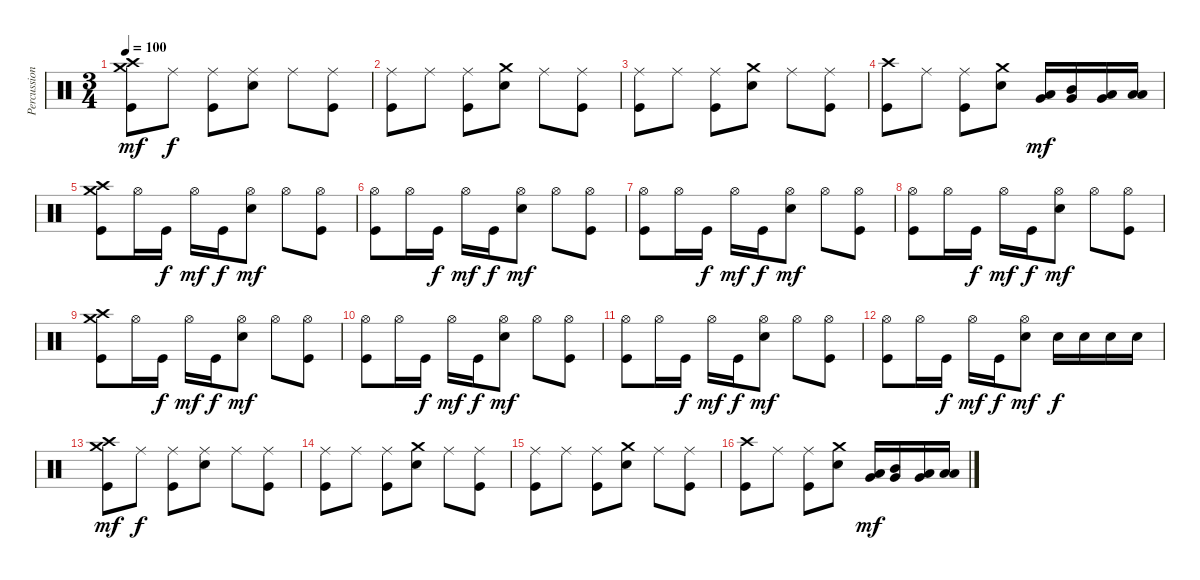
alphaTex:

\track ("Percussions" "Percussion") {instrument percussion}
\staff {score}
\articulation defaults
\ts (3 4)
\tempo 100
\clef neutral
\ks c
("Kick (hit)" "Crash medium (hit)" "Crash high (hit)").8{dy mf} "Ride (middle)".8{dy f} ("Kick (hit)" "Ride (middle)").8 ("Electric Snare (hit)" "Ride (middle)").8 "Ride (middle)".8 ("Kick (hit)" "Ride (middle)").8 |
("Kick (hit)" "Ride (middle)").8 "Ride (middle)".8 ("Kick (hit)" "Ride (middle)").8 ("Electric Snare (hit)" "Crash medium (hit)").8 "Ride (middle)".8 ("Kick (hit)" "Ride (middle)").8 |
("Kick (hit)" "Ride (middle)").8 "Ride (middle)".8 ("Kick (hit)" "Ride (middle)").8 ("Electric Snare (hit)" "Crash medium (hit)").8 "Ride (middle)".8 ("Kick (hit)" "Ride (middle)").8 |
("Kick (hit)" "Crash high (hit)").8 "Ride (middle)".8 ("Kick (hit)" "Ride (middle)").8 ("Electric Snare (hit)" "Crash medium (hit)").8 ("Very Low Tom (hit)" "Low Tom (hit)").16{dy mf} ("Very Low Tom (hit)" "Mid Tom (hit)").16 ("Low Floor Tom (hit)" "Very Low Tom (hit)").16 ("Low Floor Tom (hit)" "Low Tom (hit)").16 |
("Kick (hit)" "Crash medium (hit)" "Crash high (hit)").8 "Hi-Hat (open)".16 "Kick (hit)".16{dy f} "Hi-Hat (open)".16{dy mf} "Kick (hit)".16{dy f} ("Electric Snare (hit)" "Hi-Hat (open)").8{dy mf} "Hi-Hat (open)".8 ("Kick (hit)" "Hi-Hat (open)").8 |
("Kick (hit)" "Hi-Hat (open)").8 "Hi-Hat (open)".16 "Kick (hit)".16{dy f} "Hi-Hat (open)".16{dy mf} "Kick (hit)".16{dy f} ("Electric Snare (hit)" "Hi-Hat (open)").8{dy mf} "Hi-Hat (open)".8 ("Kick (hit)" "Hi-Hat (open)").8 |
("Kick (hit)" "Hi-Hat (open)").8 "Hi-Hat (open)".16 "Kick (hit)".16{dy f} "Hi-Hat (open)".16{dy mf} "Kick (hit)".16{dy f} ("Electric Snare (hit)" "Hi-Hat (open)").8{dy mf} "Hi-Hat (open)".8 ("Kick (hit)" "Hi-Hat (open)").8 |
("Kick (hit)" "Hi-Hat (open)").8 "Hi-Hat (open)".16 "Kick (hit)".16{dy f} "Hi-Hat (open)".16{dy mf} "Kick (hit)".16{dy f} ("Electric Snare (hit)" "Hi-Hat (open)").8{dy mf} "Hi-Hat (open)".8 ("Kick (hit)" "Hi-Hat (open)").8 |
("Kick (hit)" "Crash medium (hit)" "Crash high (hit)").8 "Hi-Hat (open)".16 "Kick (hit)".16{dy f} "Hi-Hat (open)".16{dy mf} "Kick (hit)".16{dy f} ("Electric Snare (hit)" "Hi-Hat (open)").8{dy mf} "Hi-Hat (open)".8 ("Kick (hit)" "Hi-Hat (open)").8 |
("Kick (hit)" "Hi-Hat (open)").8 "Hi-Hat (open)".16 "Kick (hit)".16{dy f} "Hi-Hat (open)".16{dy mf} "Kick (hit)".16{dy f} ("Electric Snare (hit)" "Hi-Hat (open)").8{dy mf} "Hi-Hat (open)".8 ("Kick (hit)" "Hi-Hat (open)").8 |
("Kick (hit)" "Hi-Hat (open)").8 "Hi-Hat (open)".16 "Kick (hit)".16{dy f} "Hi-Hat (open)".16{dy mf} "Kick (hit)".16{dy f} ("Electric Snare (hit)" "Hi-Hat (open)").8{dy mf} "Hi-Hat (open)".8 ("Kick (hit)" "Hi-Hat (open)").8 |
("Kick (hit)" "Hi-Hat (open)").8 "Hi-Hat (open)".16 "Kick (hit)".16{dy f} "Hi-Hat (open)".16{dy mf} "Kick (hit)".16{dy f} ("Electric Snare (hit)" "Hi-Hat (open)").8{dy mf} "Electric Snare (hit)".16{dy f} "Electric Snare (hit)".16 "Electric Snare (hit)".16 "Electric Snare (hit)".16 |
("Kick (hit)" "Crash medium (hit)" "Crash high (hit)").8{dy mf} "Ride (middle)".8{dy f} ("Kick (hit)" "Ride (middle)").8 ("Electric Snare (hit)" "Ride (middle)").8 "Ride (middle)".8 ("Kick (hit)" "Ride (middle)").8 |
("Kick (hit)" "Ride (middle)").8 "Ride (middle)".8 ("Kick (hit)" "Ride (middle)").8 ("Electric Snare (hit)" "Crash medium (hit)").8 "Ride (middle)".8 ("Kick (hit)" "Ride (middle)").8 |
("Kick (hit)" "Ride (middle)").8 "Ride (middle)".8 ("Kick (hit)" "Ride (middle)").8 ("Electric Snare (hit)" "Crash medium (hit)").8 "Ride (middle)".8 ("Kick (hit)" "Ride (middle)").8 |
("Kick (hit)" "Crash high (hit)").8 "Ride (middle)".8 ("Kick (hit)" "Ride (middle)").8 ("Electric Snare (hit)" "Crash medium (hit)").8 ("Very Low Tom (hit)" "Low Tom (hit)").16{dy mf} ("Very Low Tom (hit)" "Mid Tom (hit)").16 ("Low Floor Tom (hit)" "Very Low Tom (hit)").16 ("Low Floor Tom (hit)" "Low Tom (hit)").16
